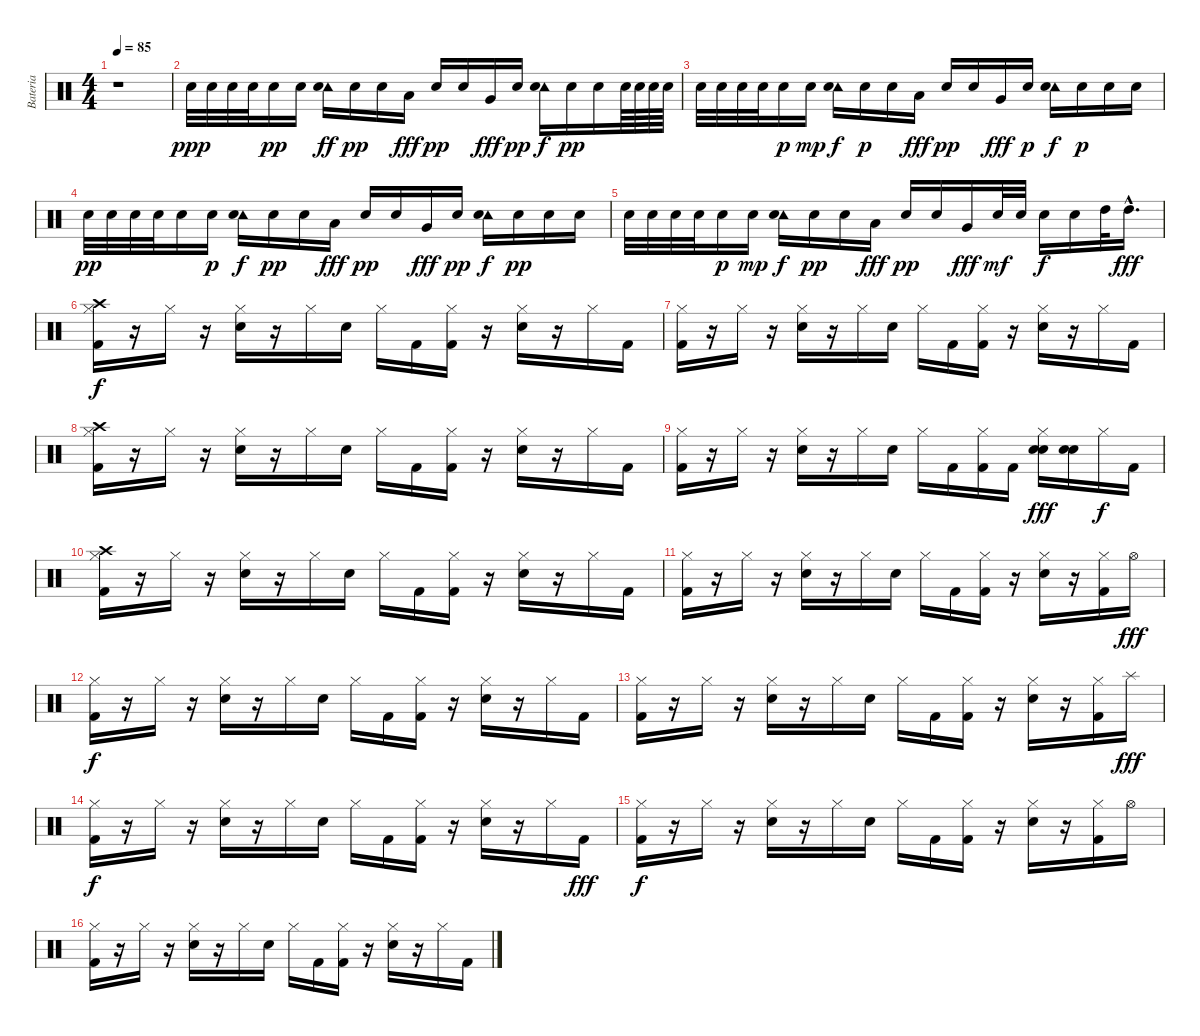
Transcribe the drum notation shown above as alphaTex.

\track ("Bateria" "Bateria") {instrument percussion}
\staff {score}
\articulation defaults
\ts (4 4)
\tempo 85
\clef neutral
\ks c
r.1{dy ppp} |
"Snare (hit) 2".32 "Snare (hit) 2".32 "Snare (hit) 2".32 "Snare (hit) 2".32 "Snare (hit) 2".16{dy pp} "Snare (hit) 2".16 ("Tambourine (hit)" "Snare (hit) 2").16{dy ff} "Snare (hit) 2".16{dy pp} "Snare (hit) 2".16 "Low Tom (hit)".16{dy fff} "Snare (hit) 2".16{dy pp} "Snare (hit) 2".16 "Very Low Tom (hit)".16{dy fff} "Snare (hit) 2".16{dy pp} ("Tambourine (hit)" "Snare (hit) 2").16{dy f} "Snare (hit) 2".16{dy pp} "Snare (hit) 2".16 "Snare (hit) 2".64 "Snare (hit) 2".64 "Snare (hit) 2".64 "Snare (hit) 2".64 |
"Snare (hit) 2".32 "Snare (hit) 2".32 "Snare (hit) 2".32 "Snare (hit) 2".32 "Snare (hit) 2".16{dy p} "Snare (hit) 2".16{dy mp} ("Tambourine (hit)" "Snare (hit) 2").16{dy f} "Snare (hit) 2".16{dy p} "Snare (hit) 2".16 "Low Tom (hit)".16{dy fff} "Snare (hit) 2".16{dy pp} "Snare (hit) 2".16 "Very Low Tom (hit)".16{dy fff} "Snare (hit) 2".16{dy p} ("Tambourine (hit)" "Snare (hit) 2").16{dy f} "Snare (hit) 2".16{dy p} "Snare (hit) 2".16 "Snare (hit) 2".16 |
"Snare (hit) 2".32{dy pp} "Snare (hit) 2".32 "Snare (hit) 2".32 "Snare (hit) 2".32 "Snare (hit) 2".16 "Snare (hit) 2".16{dy p} ("Tambourine (hit)" "Snare (hit) 2").16{dy f} "Snare (hit) 2".16{dy pp} "Snare (hit) 2".16 "Low Tom (hit)".16{dy fff} "Snare (hit) 2".16{dy pp} "Snare (hit) 2".16 "Very Low Tom (hit)".16{dy fff} "Snare (hit) 2".16{dy pp} ("Tambourine (hit)" "Snare (hit) 2").16{dy f} "Snare (hit) 2".16{dy pp} "Snare (hit) 2".16 "Snare (hit) 2".16 |
"Snare (hit) 2".32 "Snare (hit) 2".32 "Snare (hit) 2".32 "Snare (hit) 2".32 "Snare (hit) 2".16{dy p} "Snare (hit) 2".16{dy mp} ("Tambourine (hit)" "Snare (hit) 2").16{dy f} "Snare (hit) 2".16{dy pp} "Snare (hit) 2".16 "Low Tom (hit)".16{dy fff} "Snare (hit) 2".16{dy pp} "Snare (hit) 2".16 "Very Low Tom (hit)".16{dy fff} "Snare (hit) 2".32{dy mf} "Snare (hit) 2".32 "Snare (hit) 2".16{dy f} "Snare (hit) 2".16 "High Tom (hit)".32 "High Tom (hit)"{hac}.16{d dy fff} |
("Crash high (hit)" "Hi-Hat (closed)" "Kick (hit) 2").16{dy f} r.16 "Hi-Hat (closed)".16 r.16 ("Hi-Hat (closed)" "Snare (hit) 2").16 r.16 "Hi-Hat (closed)".16 "Snare (hit) 2".16 "Hi-Hat (closed)".16 "Kick (hit) 2".16 ("Hi-Hat (closed)" "Kick (hit) 2").16 r.16 ("Hi-Hat (closed)" "Snare (hit) 2").16 r.16 "Hi-Hat (closed)".16 "Kick (hit) 2".16 |
("Hi-Hat (closed)" "Kick (hit) 2").16 r.16 "Hi-Hat (closed)".16 r.16 ("Hi-Hat (closed)" "Snare (hit) 2").16 r.16 "Hi-Hat (closed)".16 "Snare (hit) 2".16 "Hi-Hat (closed)".16 "Kick (hit) 2".16 ("Hi-Hat (closed)" "Kick (hit) 2").16 r.16 ("Hi-Hat (closed)" "Snare (hit) 2").16 r.16 "Hi-Hat (closed)".16 "Kick (hit) 2".16 |
("Crash high (hit)" "Hi-Hat (closed)" "Kick (hit) 2").16 r.16 "Hi-Hat (closed)".16 r.16 ("Hi-Hat (closed)" "Snare (hit) 2").16 r.16 "Hi-Hat (closed)".16 "Snare (hit) 2".16 "Hi-Hat (closed)".16 "Kick (hit) 2".16 ("Hi-Hat (closed)" "Kick (hit) 2").16 r.16 ("Hi-Hat (closed)" "Snare (hit) 2").16 r.16 "Hi-Hat (closed)".16 "Kick (hit) 2".16 |
("Hi-Hat (closed)" "Kick (hit) 2").16 r.16 "Hi-Hat (closed)".16 r.16 ("Hi-Hat (closed)" "Snare (hit) 2").16 r.16 "Hi-Hat (closed)".16 "Snare (hit) 2".16 "Hi-Hat (closed)".16 "Kick (hit) 2".16 ("Hi-Hat (closed)" "Kick (hit) 2").16 "Kick (hit) 2".16 ("Snare (hit) 2" "Hi-Hat (closed)" "Snare (hit) 2").16{dy fff} ("Snare (hit) 2" "Snare (hit) 2").16 "Hi-Hat (closed)".16{dy f} "Kick (hit) 2".16 |
("Crash high (hit)" "Hi-Hat (closed)" "Kick (hit) 2").16 r.16 "Hi-Hat (closed)".16 r.16 ("Hi-Hat (closed)" "Snare (hit) 2").16 r.16 "Hi-Hat (closed)".16 "Snare (hit) 2".16 "Hi-Hat (closed)".16 "Kick (hit) 2".16 ("Hi-Hat (closed)" "Kick (hit) 2").16 r.16 ("Hi-Hat (closed)" "Snare (hit) 2").16 r.16 "Hi-Hat (closed)".16 "Kick (hit) 2".16 |
("Hi-Hat (closed)" "Kick (hit) 2").16 r.16 "Hi-Hat (closed)".16 r.16 ("Hi-Hat (closed)" "Snare (hit) 2").16 r.16 "Hi-Hat (closed)".16 "Snare (hit) 2".16 "Hi-Hat (closed)".16 "Kick (hit) 2".16 ("Hi-Hat (closed)" "Kick (hit) 2").16 r.16 ("Hi-Hat (closed)" "Snare (hit) 2").16 r.16 ("Hi-Hat (closed)" "Kick (hit) 2").16 "Hi-Hat (open)".16{dy fff} |
("Hi-Hat (closed)" "Kick (hit) 2").16{dy f} r.16 "Hi-Hat (closed)".16 r.16 ("Hi-Hat (closed)" "Snare (hit) 2").16 r.16 "Hi-Hat (closed)".16 "Snare (hit) 2".16 "Hi-Hat (closed)".16 "Kick (hit) 2".16 ("Hi-Hat (closed)" "Kick (hit) 2").16 r.16 ("Hi-Hat (closed)" "Snare (hit) 2").16 r.16 "Hi-Hat (closed)".16 "Kick (hit) 2".16 |
("Hi-Hat (closed)" "Kick (hit) 2").16 r.16 "Hi-Hat (closed)".16 r.16 ("Hi-Hat (closed)" "Snare (hit) 2").16 r.16 "Hi-Hat (closed)".16 "Snare (hit) 2".16 "Hi-Hat (closed)".16 "Kick (hit) 2".16 ("Hi-Hat (closed)" "Kick (hit) 2").16 r.16 ("Hi-Hat (closed)" "Snare (hit) 2").16 r.16 ("Hi-Hat (closed)" "Kick (hit) 2").16 "Splash (hit)".16{dy fff} |
("Hi-Hat (closed)" "Kick (hit) 2").16{dy f} r.16 "Hi-Hat (closed)".16 r.16 ("Hi-Hat (closed)" "Snare (hit) 2").16 r.16 "Hi-Hat (closed)".16 "Snare (hit) 2".16 "Hi-Hat (closed)".16 "Kick (hit) 2".16 ("Hi-Hat (closed)" "Kick (hit) 2").16 r.16 ("Hi-Hat (closed)" "Snare (hit) 2").16 r.16 "Hi-Hat (closed)".16 "Kick (hit) 2".16{dy fff} |
("Hi-Hat (closed)" "Kick (hit) 2").16{dy f} r.16 "Hi-Hat (closed)".16 r.16 ("Hi-Hat (closed)" "Snare (hit) 2").16 r.16 "Hi-Hat (closed)".16 "Snare (hit) 2".16 "Hi-Hat (closed)".16 "Kick (hit) 2".16 ("Hi-Hat (closed)" "Kick (hit) 2").16 r.16 ("Hi-Hat (closed)" "Snare (hit) 2").16 r.16 ("Hi-Hat (closed)" "Kick (hit) 2").16 "Hi-Hat (open)".16 |
("Hi-Hat (closed)" "Kick (hit) 2").16 r.16 "Hi-Hat (closed)".16 r.16 ("Hi-Hat (closed)" "Snare (hit) 2").16 r.16 "Hi-Hat (closed)".16 "Snare (hit) 2".16 "Hi-Hat (closed)".16 "Kick (hit) 2".16 ("Hi-Hat (closed)" "Kick (hit) 2").16 r.16 ("Hi-Hat (closed)" "Snare (hit) 2").16 r.16 "Hi-Hat (closed)".16 "Kick (hit) 2".16
